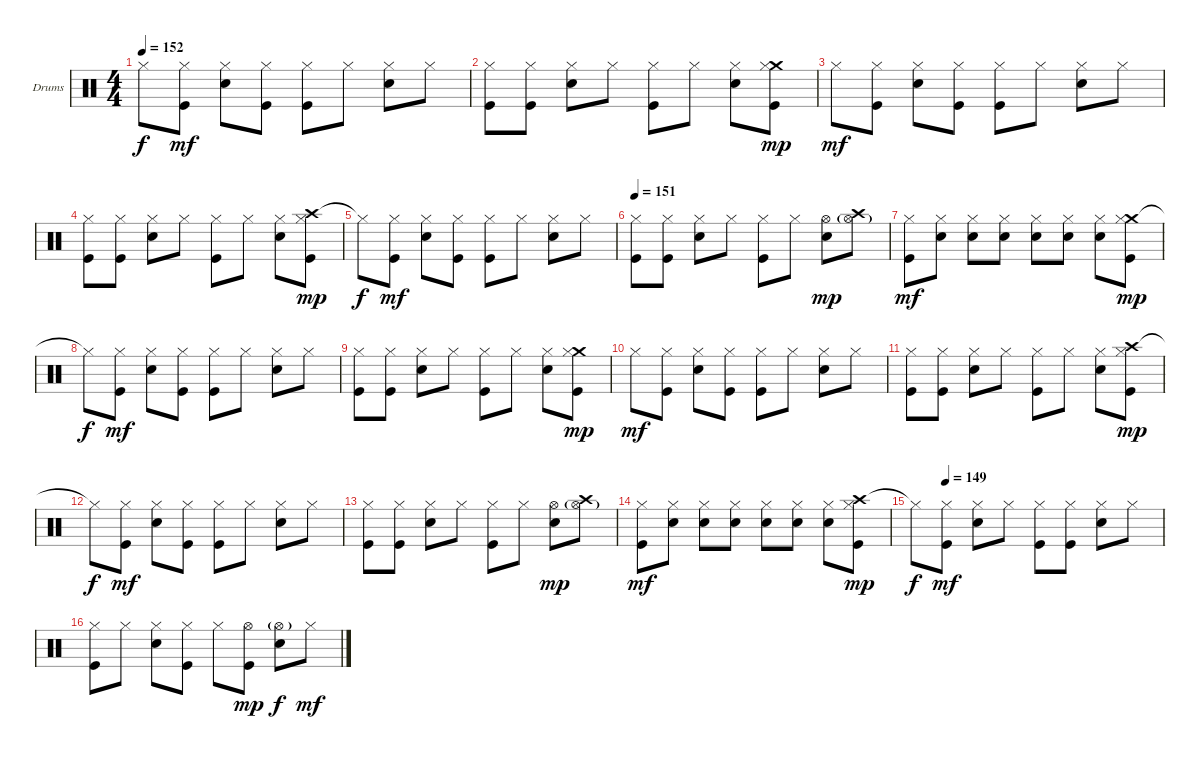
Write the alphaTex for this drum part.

\bracketExtendMode groupsimilarinstruments
\firstSystemTrackNameOrientation horizontal
\otherSystemsTrackNameOrientation horizontal
\track ("Drumkit" "Drums") {instrument percussion}
\staff {score}
\articulation defaults
\ts (4 4)
\tempo 152
\clef neutral
\ks c "Hi-Hat (closed)"{t}.8{dy f}
("Hi-Hat (closed)" "Kick (hit)").8{dy mf} ("Hi-Hat (closed)" "Snare (hit) 2").8 ("Hi-Hat (closed)" "Kick (hit)").8 ("Hi-Hat (closed)" "Kick (hit)").8 "Hi-Hat (closed)".8 ("Hi-Hat (closed)" "Snare (hit) 2").8 "Hi-Hat (closed)".8 |
("Hi-Hat (closed)" "Kick (hit)").8 ("Hi-Hat (closed)" "Kick (hit)").8 ("Hi-Hat (closed)" "Snare (hit) 2").8 "Hi-Hat (closed)".8 ("Hi-Hat (closed)" "Kick (hit)").8 "Hi-Hat (closed)".8 ("Hi-Hat (closed)" "Snare (hit) 2").8 ("Crash medium (hit)" "Hi-Hat (closed)" "Kick (hit)").8{dy mp} |
"Hi-Hat (closed)".8{dy mf} ("Hi-Hat (closed)" "Kick (hit)").8 ("Hi-Hat (closed)" "Snare (hit) 2").8 ("Hi-Hat (closed)" "Kick (hit)").8 ("Hi-Hat (closed)" "Kick (hit)").8 "Hi-Hat (closed)".8 ("Hi-Hat (closed)" "Snare (hit) 2").8 "Hi-Hat (closed)".8 |
("Hi-Hat (closed)" "Kick (hit)").8 ("Hi-Hat (closed)" "Kick (hit)").8 ("Hi-Hat (closed)" "Snare (hit) 2").8 "Hi-Hat (closed)".8 ("Hi-Hat (closed)" "Kick (hit)").8 "Hi-Hat (closed)".8 ("Hi-Hat (closed)" "Snare (hit) 2").8 ("Crash high (hit)" "Hi-Hat (closed)" "Kick (hit)").8{dy mp} |
"Hi-Hat (closed)"{t}.8{dy f} ("Hi-Hat (closed)" "Kick (hit)").8{dy mf} ("Hi-Hat (closed)" "Snare (hit) 2").8 ("Hi-Hat (closed)" "Kick (hit)").8 ("Hi-Hat (closed)" "Kick (hit)").8 "Hi-Hat (closed)".8 ("Hi-Hat (closed)" "Snare (hit) 2").8 "Hi-Hat (closed)".8 |
\tempo 151
("Hi-Hat (closed)" "Kick (hit)").8 ("Hi-Hat (closed)" "Kick (hit)").8 ("Hi-Hat (closed)" "Snare (hit) 2").8 "Hi-Hat (closed)".8 ("Hi-Hat (closed)" "Kick (hit)").8 "Hi-Hat (closed)".8 ("Hi-Hat (open)" "Snare (hit) 2").8{dy mp} ("Crash high (hit)" "Hi-Hat (open)"{g}).8 |
("Hi-Hat (closed)" "Kick (hit)").8{dy mf} ("Hi-Hat (closed)" "Snare (hit) 2").8 ("Hi-Hat (closed)" "Snare (hit) 2").8 ("Hi-Hat (closed)" "Snare (hit) 2").8 ("Hi-Hat (closed)" "Snare (hit) 2").8 ("Hi-Hat (closed)" "Snare (hit) 2").8 ("Hi-Hat (closed)" "Snare (hit) 2").8 ("Crash medium (hit)" "Hi-Hat (closed)" "Kick (hit)").8{dy mp} |
"Hi-Hat (closed)"{t}.8{dy f} ("Hi-Hat (closed)" "Kick (hit)").8{dy mf} ("Hi-Hat (closed)" "Snare (hit) 2").8 ("Hi-Hat (closed)" "Kick (hit)").8 ("Hi-Hat (closed)" "Kick (hit)").8 "Hi-Hat (closed)".8 ("Hi-Hat (closed)" "Snare (hit) 2").8 "Hi-Hat (closed)".8 |
("Hi-Hat (closed)" "Kick (hit)").8 ("Hi-Hat (closed)" "Kick (hit)").8 ("Hi-Hat (closed)" "Snare (hit) 2").8 "Hi-Hat (closed)".8 ("Hi-Hat (closed)" "Kick (hit)").8 "Hi-Hat (closed)".8 ("Hi-Hat (closed)" "Snare (hit) 2").8 ("Crash medium (hit)" "Hi-Hat (closed)" "Kick (hit)").8{dy mp} |
"Hi-Hat (closed)".8{dy mf} ("Hi-Hat (closed)" "Kick (hit)").8 ("Hi-Hat (closed)" "Snare (hit) 2").8 ("Hi-Hat (closed)" "Kick (hit)").8 ("Hi-Hat (closed)" "Kick (hit)").8 "Hi-Hat (closed)".8 ("Hi-Hat (closed)" "Snare (hit) 2").8 "Hi-Hat (closed)".8 |
("Hi-Hat (closed)" "Kick (hit)").8 ("Hi-Hat (closed)" "Kick (hit)").8 ("Hi-Hat (closed)" "Snare (hit) 2").8 "Hi-Hat (closed)".8 ("Hi-Hat (closed)" "Kick (hit)").8 "Hi-Hat (closed)".8 ("Hi-Hat (closed)" "Snare (hit) 2").8 ("Crash high (hit)" "Hi-Hat (closed)" "Kick (hit)").8{dy mp} |
"Hi-Hat (closed)"{t}.8{dy f} ("Hi-Hat (closed)" "Kick (hit)").8{dy mf} ("Hi-Hat (closed)" "Snare (hit) 2").8 ("Hi-Hat (closed)" "Kick (hit)").8 ("Hi-Hat (closed)" "Kick (hit)").8 "Hi-Hat (closed)".8 ("Hi-Hat (closed)" "Snare (hit) 2").8 "Hi-Hat (closed)".8 |
("Hi-Hat (closed)" "Kick (hit)").8 ("Hi-Hat (closed)" "Kick (hit)").8 ("Hi-Hat (closed)" "Snare (hit) 2").8 "Hi-Hat (closed)".8 ("Hi-Hat (closed)" "Kick (hit)").8 "Hi-Hat (closed)".8 ("Hi-Hat (open)" "Snare (hit) 2").8{dy mp} ("Crash high (hit)" "Hi-Hat (open)"{g}).8 |
("Hi-Hat (closed)" "Kick (hit)").8{dy mf} ("Hi-Hat (closed)" "Snare (hit) 2").8 ("Hi-Hat (closed)" "Snare (hit) 2").8 ("Hi-Hat (closed)" "Snare (hit) 2").8 ("Hi-Hat (closed)" "Snare (hit) 2").8 ("Hi-Hat (closed)" "Snare (hit) 2").8 ("Hi-Hat (closed)" "Snare (hit) 2").8 ("Crash high (hit)" "Hi-Hat (closed)" "Kick (hit)").8{dy mp} |
\tempo (149 0.125)
"Hi-Hat (closed)"{t}.8{dy f} ("Hi-Hat (closed)" "Kick (hit)").8{dy mf} ("Hi-Hat (closed)" "Snare (hit) 2").8 "Hi-Hat (closed)".8 ("Hi-Hat (closed)" "Kick (hit)").8 ("Hi-Hat (closed)" "Kick (hit)").8 ("Hi-Hat (closed)" "Snare (hit) 2").8 "Hi-Hat (closed)".8 |
("Hi-Hat (closed)" "Kick (hit)").8 "Hi-Hat (closed)".8 ("Hi-Hat (closed)" "Snare (hit) 2").8 ("Hi-Hat (closed)" "Kick (hit)").8 "Hi-Hat (closed)".8 ("Hi-Hat (open)" "Kick (hit)").8{dy mp} ("Hi-Hat (open)"{g} "Snare (hit) 2").8{dy f} "Hi-Hat (closed)".8{dy mf}
